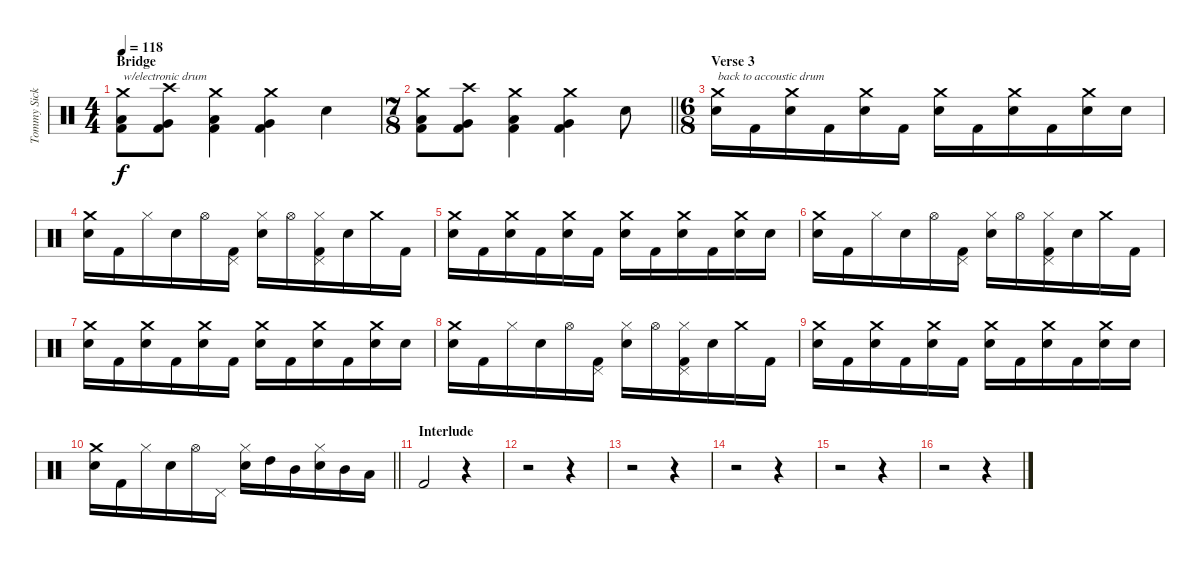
\track ("Tommy Sickles" "Tommy Sick") {instrument percussion}
\staff {score}
\articulation defaults
\ts (4 4)
\section ("" "Bridge")
\tempo 118
\clef neutral
\ks c
("Crash medium (hit)" "Low Floor Tom (hit)" "Kick (hit) 2").8{txt "w/electronic drum" dy f} ("Crash high (hit)" "Very Low Tom (hit)" "Kick (hit) 2").8 ("Crash medium (hit)" "Low Floor Tom (hit)" "Kick (hit) 2").4 ("Crash medium (hit)" "Very Low Tom (hit)" "Kick (hit) 2").4 "Snare (hit) 2".4 |
\ts (7 8)
\barLineRight lightlight
("Crash medium (hit)" "Low Floor Tom (hit)" "Kick (hit) 2").8 ("Crash high (hit)" "Very Low Tom (hit)" "Kick (hit) 2").8 ("Crash medium (hit)" "Low Floor Tom (hit)" "Kick (hit) 2").4 ("Crash medium (hit)" "Very Low Tom (hit)" "Kick (hit) 2").4 "Snare (hit) 2".8 |
\ts (6 8)
\section ("" "Verse 3")
("Crash medium (hit)" "Electric Snare (hit)").16{txt "back to accoustic drum"} "Kick (hit) 2".16 ("Crash medium (hit)" "Electric Snare (hit)").16 "Kick (hit) 2".16 ("Crash medium (hit)" "Electric Snare (hit)").16 "Kick (hit) 2".16 ("Crash medium (hit)" "Electric Snare (hit)").16 "Kick (hit) 2".16 ("Crash medium (hit)" "Electric Snare (hit)").16 "Kick (hit) 2".16 ("Crash medium (hit)" "Electric Snare (hit)").16 "Electric Snare (hit)".16 |
("Crash medium (hit)" "Electric Snare (hit)").16 "Kick (hit) 2".16 "Hi-Hat (closed)".16 "Electric Snare (hit)".16 "Hi-Hat (open)".16 ("Pedal Hi-Hat (hit)" "Kick (hit) 2").16 ("Hi-Hat (closed)" "Electric Snare (hit)").16 "Hi-Hat (open)".16 ("Pedal Hi-Hat (hit)" "Hi-Hat (closed)" "Kick (hit) 2").16 "Electric Snare (hit)".16 "Crash medium (hit)".16 "Kick (hit) 2".16 |
("Crash medium (hit)" "Electric Snare (hit)").16 "Kick (hit) 2".16 ("Crash medium (hit)" "Electric Snare (hit)").16 "Kick (hit) 2".16 ("Crash medium (hit)" "Electric Snare (hit)").16 "Kick (hit) 2".16 ("Crash medium (hit)" "Electric Snare (hit)").16 "Kick (hit) 2".16 ("Crash medium (hit)" "Electric Snare (hit)").16 "Kick (hit) 2".16 ("Crash medium (hit)" "Electric Snare (hit)").16 "Electric Snare (hit)".16 |
("Crash medium (hit)" "Electric Snare (hit)").16 "Kick (hit) 2".16 "Hi-Hat (closed)".16 "Electric Snare (hit)".16 "Hi-Hat (open)".16 ("Pedal Hi-Hat (hit)" "Kick (hit) 2").16 ("Hi-Hat (closed)" "Electric Snare (hit)").16 "Hi-Hat (open)".16 ("Pedal Hi-Hat (hit)" "Hi-Hat (closed)" "Kick (hit) 2").16 "Electric Snare (hit)".16 "Crash medium (hit)".16 "Kick (hit) 2".16 |
("Crash medium (hit)" "Electric Snare (hit)").16 "Kick (hit) 2".16 ("Crash medium (hit)" "Electric Snare (hit)").16 "Kick (hit) 2".16 ("Crash medium (hit)" "Electric Snare (hit)").16 "Kick (hit) 2".16 ("Crash medium (hit)" "Electric Snare (hit)").16 "Kick (hit) 2".16 ("Crash medium (hit)" "Electric Snare (hit)").16 "Kick (hit) 2".16 ("Crash medium (hit)" "Electric Snare (hit)").16 "Electric Snare (hit)".16 |
("Crash medium (hit)" "Electric Snare (hit)").16 "Kick (hit) 2".16 "Hi-Hat (closed)".16 "Electric Snare (hit)".16 "Hi-Hat (open)".16 ("Pedal Hi-Hat (hit)" "Kick (hit) 2").16 ("Hi-Hat (closed)" "Electric Snare (hit)").16 "Hi-Hat (open)".16 ("Pedal Hi-Hat (hit)" "Hi-Hat (closed)" "Kick (hit) 2").16 "Electric Snare (hit)".16 "Crash medium (hit)".16 "Kick (hit) 2".16 |
("Crash medium (hit)" "Electric Snare (hit)").16 "Kick (hit) 2".16 ("Crash medium (hit)" "Electric Snare (hit)").16 "Kick (hit) 2".16 ("Crash medium (hit)" "Electric Snare (hit)").16 "Kick (hit) 2".16 ("Crash medium (hit)" "Electric Snare (hit)").16 "Kick (hit) 2".16 ("Crash medium (hit)" "Electric Snare (hit)").16 "Kick (hit) 2".16 ("Crash medium (hit)" "Electric Snare (hit)").16 "Electric Snare (hit)".16 |
\barLineRight lightlight
("Crash medium (hit)" "Electric Snare (hit)").16 "Kick (hit) 2".16 "Hi-Hat (closed)".16 "Electric Snare (hit)".16 "Hi-Hat (open)".16 "Pedal Hi-Hat (hit)".16 ("Hi-Hat (closed)" "Electric Snare (hit)").16 "High Tom (hit)".16 "Mid Tom (hit)".16 ("Hi-Hat (closed)" "Electric Snare (hit)").16 "Mid Tom (hit)".16 "Low Tom (hit)".16 |
\section ("" "Interlude")
"Kick (hit) 2".2 r.4 |
r.2 r.4 |
r.2 r.4 |
r.2 r.4 |
r.2 r.4 |
r.2 r.4
